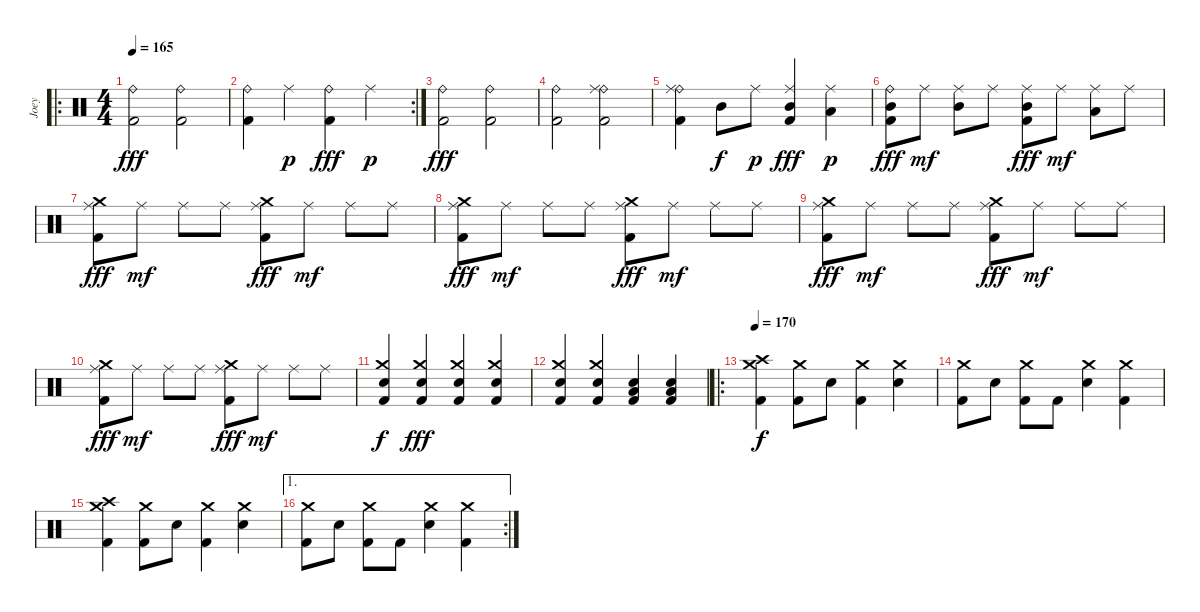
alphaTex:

\track ("Joey" "Joey") {instrument percussion}
\staff {score}
\articulation defaults
\ro
\ts (4 4)
\tempo 165
\clef neutral
\ks c
("Ride (bell)" "Kick (hit) 2").2{dy fff} ("Ride (bell)" "Kick (hit) 2").2 |
\rc 2
("Ride (bell)" "Kick (hit) 2").4 "Ride (middle)".4{dy p} ("Ride (bell)" "Kick (hit) 2").4{dy fff} "Ride (middle)".4{dy p} |
("Ride (bell)" "Kick (hit) 2").2{dy fff} ("Ride (bell)" "Kick (hit) 2").2 |
("Ride (bell)" "Kick (hit) 2").2 ("Ride (bell)" "Ride (middle)" "Kick (hit) 2").2 |
("Ride (bell)" "Ride (middle)" "Kick (hit) 2").4 "Mid Tom (hit)".8{dy f} "Ride (middle)".8{dy p} ("Ride (middle)" "Mid Tom (hit)" "Kick (hit) 2").4{dy fff} ("Ride (middle)" "Low Tom (hit)").4{dy p} |
("Ride (bell)" "Mid Tom (hit)" "Kick (hit) 2").8{dy fff} "Ride (middle)".8{dy mf} ("Ride (middle)" "Mid Tom (hit)").8 "Ride (middle)".8 ("Ride (middle)" "Mid Tom (hit)" "Kick (hit) 2").8{dy fff} "Ride (middle)".8{dy mf} ("Ride (middle)" "Low Tom (hit)").8 "Ride (middle)".8 |
("Crash medium (hit)" "Ride (middle)" "Kick (hit) 2").8{dy fff} "Ride (middle)".8{dy mf} "Ride (middle)".8 "Ride (middle)".8 ("Crash medium (hit)" "Ride (middle)" "Kick (hit) 2").8{dy fff} "Ride (middle)".8{dy mf} "Ride (middle)".8 "Ride (middle)".8 |
("Crash medium (hit)" "Ride (middle)" "Kick (hit) 2").8{dy fff} "Ride (middle)".8{dy mf} "Ride (middle)".8 "Ride (middle)".8 ("Crash medium (hit)" "Ride (middle)" "Kick (hit) 2").8{dy fff} "Ride (middle)".8{dy mf} "Ride (middle)".8 "Ride (middle)".8 |
("Crash medium (hit)" "Ride (middle)" "Kick (hit) 2").8{dy fff} "Ride (middle)".8{dy mf} "Ride (middle)".8 "Ride (middle)".8 ("Crash medium (hit)" "Ride (middle)" "Kick (hit) 2").8{dy fff} "Ride (middle)".8{dy mf} "Ride (middle)".8 "Ride (middle)".8 |
("Crash medium (hit)" "Ride (middle)" "Kick (hit) 2").8{dy fff} "Ride (middle)".8{dy mf} "Ride (middle)".8 "Ride (middle)".8 ("Crash medium (hit)" "Ride (middle)" "Kick (hit) 2").8{dy fff} "Ride (middle)".8{dy mf} "Ride (middle)".8 "Ride (middle)".8 |
("Crash medium (hit)" "Electric Snare (hit)" "Kick (hit) 2").4{dy f} ("Crash medium (hit)" "Electric Snare (hit)" "Kick (hit) 2").4{dy fff} ("Crash medium (hit)" "Electric Snare (hit)" "Kick (hit) 2").4 ("Crash medium (hit)" "Electric Snare (hit)" "Kick (hit) 2").4 |
("Crash medium (hit)" "Electric Snare (hit)" "Kick (hit) 2").4 ("Crash medium (hit)" "Electric Snare (hit)" "Kick (hit) 2").4 ("Electric Snare (hit)" "Low Floor Tom (hit)" "Kick (hit) 2").4 ("Electric Snare (hit)" "Low Floor Tom (hit)" "Kick (hit) 2").4 |
\ro
\tempo 170
("Crash high (hit)" "Crash medium (hit)" "Kick (hit) 2").4{dy f} ("Crash medium (hit)" "Kick (hit) 2").8 "Electric Snare (hit)".8 ("Crash medium (hit)" "Kick (hit) 2").4 ("Crash medium (hit)" "Electric Snare (hit)").4 |
("Crash medium (hit)" "Kick (hit) 2").8 "Electric Snare (hit)".8 ("Crash medium (hit)" "Kick (hit) 2").8 "Kick (hit) 2".8 ("Crash medium (hit)" "Electric Snare (hit)").4 ("Crash medium (hit)" "Kick (hit) 2").4 |
("Crash high (hit)" "Crash medium (hit)" "Kick (hit) 2").4 ("Crash medium (hit)" "Kick (hit) 2").8 "Electric Snare (hit)".8 ("Crash medium (hit)" "Kick (hit) 2").4 ("Crash medium (hit)" "Electric Snare (hit)").4 |
\ae 1
\rc 2
("Crash medium (hit)" "Kick (hit) 2").8 "Electric Snare (hit)".8 ("Crash medium (hit)" "Kick (hit) 2").8 "Kick (hit) 2".8 ("Crash medium (hit)" "Electric Snare (hit)").4 ("Crash medium (hit)" "Kick (hit) 2").4
